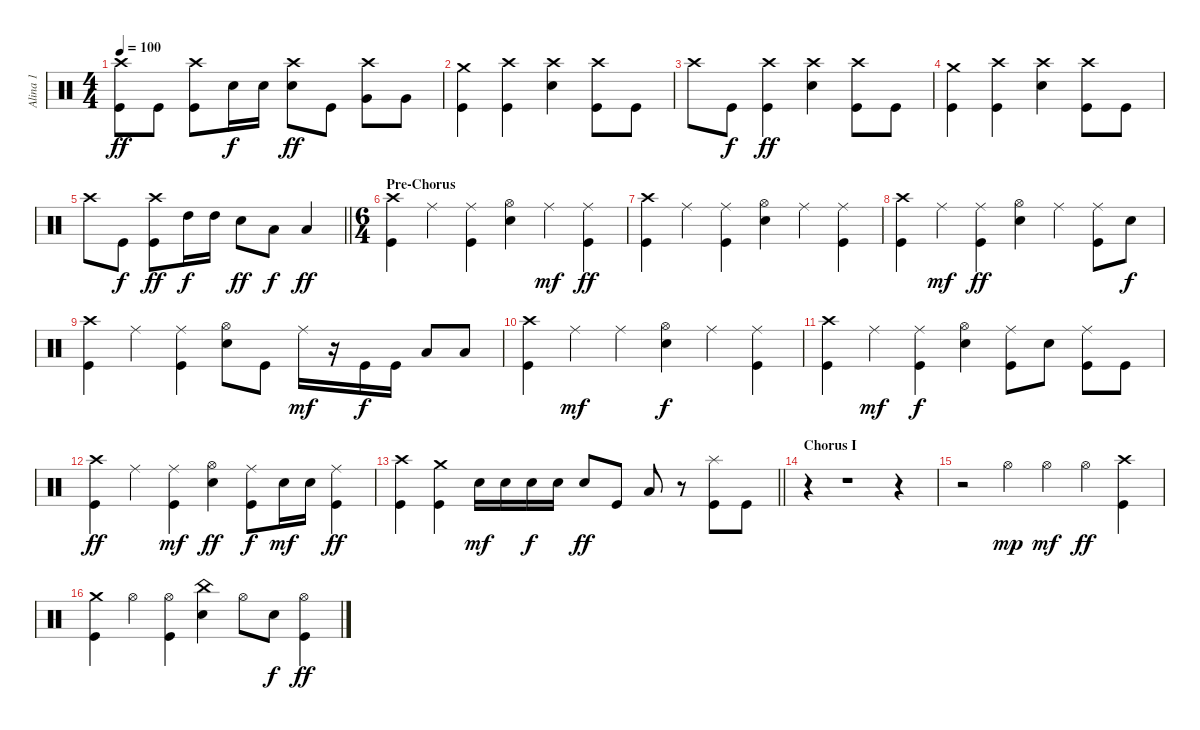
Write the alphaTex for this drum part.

\track ("Alina 1" "Alina 1") {mute instrument percussion}
\staff {score}
\articulation defaults
\ts (4 4)
\tempo 100
\clef neutral
\ks c
("Crash high (hit)" "Kick (hit)").8{dy ff} "Kick (hit)".8 ("Crash high (hit)" "Kick (hit)").8 "Snare (hit) 2".16{dy f} "Snare (hit) 2".16 ("Crash high (hit)" "Snare (hit) 2").8{dy ff} "Kick (hit)".8 ("Crash high (hit)" "Very Low Tom (hit)").8 "Very Low Tom (hit)".8 |
("Kick (hit)" "Crash medium (hit)").4 ("Crash high (hit)" "Kick (hit)").4 ("Snare (hit) 2" "Crash high (hit)").4 ("Crash high (hit)" "Kick (hit)").8 "Kick (hit)".8 |
"Crash high (hit)".8 "Kick (hit)".8{dy f} ("Kick (hit)" "Crash high (hit)").4{dy ff} ("Snare (hit) 2" "Crash high (hit)").4 ("Crash high (hit)" "Kick (hit)").8 "Kick (hit)".8 |
("Kick (hit)" "Crash medium (hit)").4 ("Crash high (hit)" "Kick (hit)").4 ("Snare (hit) 2" "Crash high (hit)").4 ("Crash high (hit)" "Kick (hit)").8 "Kick (hit)".8 |
\barLineRight lightlight "Crash high (hit)".8 "Kick (hit)".8{dy f}
("Crash high (hit)" "Kick (hit)").8{dy ff} "High Tom (hit)".16{dy f} "High Tom (hit)".16 "Snare (hit) 2".8{dy ff} "Low Tom (hit)".8{dy f} "Low Tom (hit)".4{dy ff} |
\ts (6 4)
\section ("" "Pre-Chorus")
("Crash high (hit)" "Kick (hit)").4 "Ride (middle)".4 ("Kick (hit)" "Ride (middle)").4 ("Hi-Hat (open)" "Snare (hit) 2").4 "Ride (middle)".4{dy mf} ("Kick (hit)" "Ride (middle)").4{dy ff} |
("Crash high (hit)" "Kick (hit)").4 "Ride (middle)".4 ("Kick (hit)" "Ride (middle)").4 ("Hi-Hat (open)" "Snare (hit) 2").4 "Ride (middle)".4 ("Kick (hit)" "Ride (middle)").4 |
("Crash high (hit)" "Kick (hit)").4 "Ride (middle)".4{dy mf} ("Kick (hit)" "Ride (middle)").4{dy ff} ("Hi-Hat (open)" "Snare (hit) 2").4 "Ride (middle)".4 ("Kick (hit)" "Ride (middle)").8 "Snare (hit) 2".8{dy f} |
("Crash high (hit)" "Kick (hit)").4 "Ride (middle)".4 ("Kick (hit)" "Ride (middle)").4 ("Hi-Hat (open)" "Snare (hit) 2").8 "Kick (hit)".8 "Ride (middle)".16{dy mf} r.16 "Kick (hit)".16{dy f} "Kick (hit)".16 "Low Tom (hit)".8 "Low Tom (hit)".8 |
("Crash high (hit)" "Kick (hit)").4 "Ride (middle)".4{dy mf} "Ride (middle)".4 ("Hi-Hat (open)" "Snare (hit) 2").4{dy f} "Ride (middle)".4 ("Kick (hit)" "Ride (middle)").4 |
("Crash high (hit)" "Kick (hit)").4 "Ride (middle)".4{dy mf} ("Kick (hit)" "Ride (middle)").4{dy f} ("Hi-Hat (open)" "Snare (hit) 2").4 ("Kick (hit)" "Ride (middle)").8 "Snare (hit) 2".8 ("Kick (hit)" "Ride (middle)").8 "Kick (hit)".8 |
("Crash high (hit)" "Kick (hit)").4{dy ff} "Ride (middle)".4 ("Kick (hit)" "Ride (middle)").4{dy mf} ("Hi-Hat (open)" "Snare (hit) 2").4{dy ff} ("Kick (hit)" "Ride (middle)").8{dy f} "Snare (hit) 2".16{dy mf} "Snare (hit) 2".16 ("Kick (hit)" "Ride (middle)").4{dy ff} |
\barLineRight lightlight
("Crash high (hit)" "Kick (hit)").4 ("Kick (hit)" "Crash medium (hit)").4 "Snare (hit) 2".16{dy mf} "Snare (hit) 2".16 "Snare (hit) 2".16{dy f} "Snare (hit) 2".16 "Snare (hit) 2".8{dy ff} "Kick (hit)".8 "Low Tom (hit)".8 r.8 ("Kick (hit)" "Splash (hit)").8 "Kick (hit)".8 |
\section ("" "Chorus I")
r.4 r.1 r.4 |
r.2 "Hi-Hat (open)".4{dy mp} "Hi-Hat (open)".4{dy mf} "Hi-Hat (open)".4{dy ff} ("Kick (hit)" "Crash high (hit)").4 |
("Kick (hit)" "Crash medium (hit)").4 "Hi-Hat (open)".4 ("Hi-Hat (open)" "Kick (hit)").4 ("Snare (hit) 2" "China (hit)").4 "Hi-Hat (open)".8 "Snare (hit) 2".8{dy f} ("Hi-Hat (open)" "Kick (hit)").4{dy ff}
